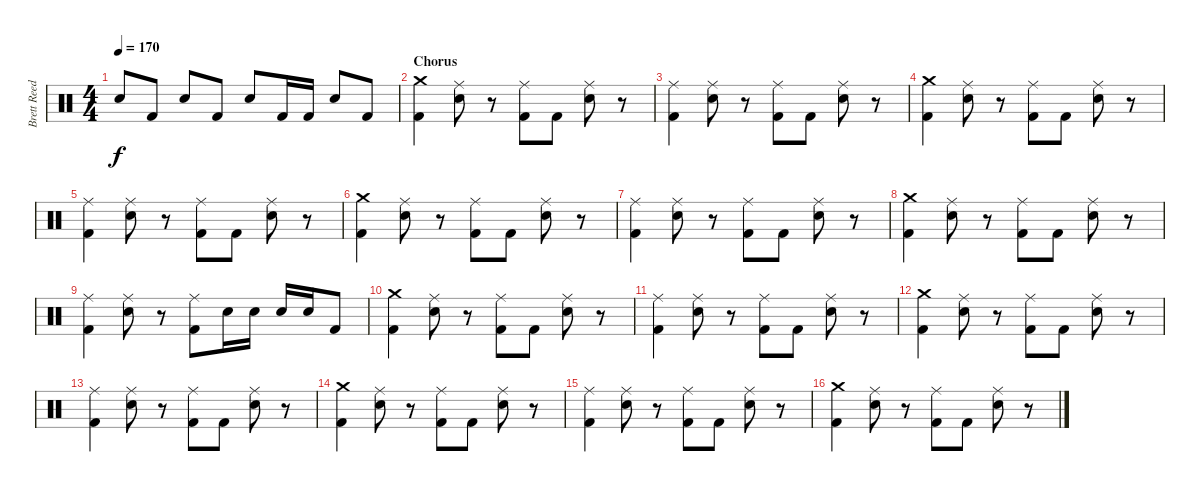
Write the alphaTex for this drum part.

\track ("Brett Reed" "Brett Reed") {instrument percussion}
\staff {score}
\articulation defaults
\ts (4 4)
\tempo 170
\clef neutral
\ks c "Snare (hit) 2".8{dy f} "Kick (hit) 2".8 "Snare (hit) 2".8 "Kick (hit) 2".8 "Snare (hit) 2".8 "Kick (hit) 2".16 "Kick (hit) 2".16 "Snare (hit) 2".8 "Kick (hit) 2".8
|
\section ("" "Chorus")
("Crash medium (hit)" "Kick (hit) 2").4 ("Ride (middle)" "Snare (hit) 2").8 r.8 ("Ride (middle)" "Kick (hit) 2").8 "Kick (hit) 2".8 ("Ride (middle)" "Snare (hit) 2").8 r.8 |
("Ride (middle)" "Kick (hit) 2").4 ("Ride (middle)" "Snare (hit) 2").8 r.8 ("Ride (middle)" "Kick (hit) 2").8 "Kick (hit) 2".8 ("Ride (middle)" "Snare (hit) 2").8 r.8 |
("Crash medium (hit)" "Kick (hit) 2").4 ("Ride (middle)" "Snare (hit) 2").8 r.8 ("Ride (middle)" "Kick (hit) 2").8 "Kick (hit) 2".8 ("Ride (middle)" "Snare (hit) 2").8 r.8 |
("Ride (middle)" "Kick (hit) 2").4 ("Ride (middle)" "Snare (hit) 2").8 r.8 ("Ride (middle)" "Kick (hit) 2").8 "Kick (hit) 2".8 ("Ride (middle)" "Snare (hit) 2").8 r.8 |
("Crash medium (hit)" "Kick (hit) 2").4 ("Ride (middle)" "Snare (hit) 2").8 r.8 ("Ride (middle)" "Kick (hit) 2").8 "Kick (hit) 2".8 ("Ride (middle)" "Snare (hit) 2").8 r.8 |
("Ride (middle)" "Kick (hit) 2").4 ("Ride (middle)" "Snare (hit) 2").8 r.8 ("Ride (middle)" "Kick (hit) 2").8 "Kick (hit) 2".8 ("Ride (middle)" "Snare (hit) 2").8 r.8 |
("Crash medium (hit)" "Kick (hit) 2").4 ("Ride (middle)" "Snare (hit) 2").8 r.8 ("Ride (middle)" "Kick (hit) 2").8 "Kick (hit) 2".8 ("Ride (middle)" "Snare (hit) 2").8 r.8 |
("Ride (middle)" "Kick (hit) 2").4 ("Ride (middle)" "Snare (hit) 2").8 r.8 ("Ride (middle)" "Kick (hit) 2").8 "Snare (hit) 2".16 "Snare (hit) 2".16 "Snare (hit) 2".16 "Snare (hit) 2".16 "Kick (hit) 2".8 |
("Crash medium (hit)" "Kick (hit) 2").4 ("Ride (middle)" "Snare (hit) 2").8 r.8 ("Ride (middle)" "Kick (hit) 2").8 "Kick (hit) 2".8 ("Ride (middle)" "Snare (hit) 2").8 r.8 |
("Ride (middle)" "Kick (hit) 2").4 ("Ride (middle)" "Snare (hit) 2").8 r.8 ("Ride (middle)" "Kick (hit) 2").8 "Kick (hit) 2".8 ("Ride (middle)" "Snare (hit) 2").8 r.8 |
("Crash medium (hit)" "Kick (hit) 2").4 ("Ride (middle)" "Snare (hit) 2").8 r.8 ("Ride (middle)" "Kick (hit) 2").8 "Kick (hit) 2".8 ("Ride (middle)" "Snare (hit) 2").8 r.8 |
("Ride (middle)" "Kick (hit) 2").4 ("Ride (middle)" "Snare (hit) 2").8 r.8 ("Ride (middle)" "Kick (hit) 2").8 "Kick (hit) 2".8 ("Ride (middle)" "Snare (hit) 2").8 r.8 |
("Crash medium (hit)" "Kick (hit) 2").4 ("Ride (middle)" "Snare (hit) 2").8 r.8 ("Ride (middle)" "Kick (hit) 2").8 "Kick (hit) 2".8 ("Ride (middle)" "Snare (hit) 2").8 r.8 |
("Ride (middle)" "Kick (hit) 2").4 ("Ride (middle)" "Snare (hit) 2").8 r.8 ("Ride (middle)" "Kick (hit) 2").8 "Kick (hit) 2".8 ("Ride (middle)" "Snare (hit) 2").8 r.8 |
("Crash medium (hit)" "Kick (hit) 2").4 ("Ride (middle)" "Snare (hit) 2").8 r.8 ("Ride (middle)" "Kick (hit) 2").8 "Kick (hit) 2".8 ("Ride (middle)" "Snare (hit) 2").8 r.8
